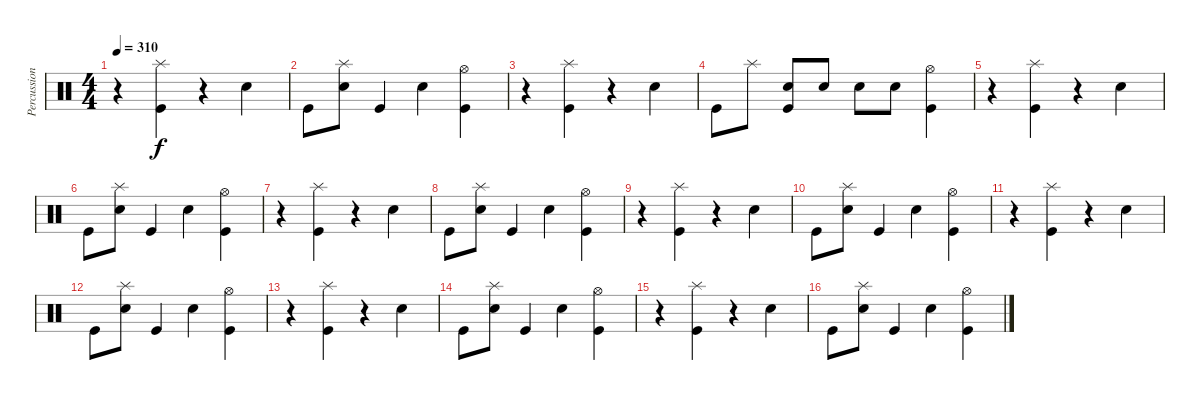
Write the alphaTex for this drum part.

\track ("Percussion" "Percussion") {instrument percussion}
\staff {score}
\articulation defaults
\ts (4 4)
\tempo 310
\clef neutral
\ks c
r.4{dy f} ("Splash (hit)" "Kick (hit)").4 r.4 "Electric Snare (hit)".4 |
"Kick (hit)".8 ("Splash (hit)" "Electric Snare (hit)").8 "Kick (hit)".4 "Electric Snare (hit)".4 ("Hi-Hat (open)" "Kick (hit)").4 |
r.4 ("Splash (hit)" "Kick (hit)").4 r.4 "Electric Snare (hit)".4 |
"Kick (hit)".8 "Splash (hit)".8 ("Electric Snare (hit)" "Kick (hit)").8 "Electric Snare (hit)".8 "Electric Snare (hit)".8 "Electric Snare (hit)".8 ("Hi-Hat (open)" "Kick (hit)").4 |
r.4 ("Splash (hit)" "Kick (hit)").4 r.4 "Electric Snare (hit)".4 |
"Kick (hit)".8 ("Splash (hit)" "Electric Snare (hit)").8 "Kick (hit)".4 "Electric Snare (hit)".4 ("Hi-Hat (open)" "Kick (hit)").4 |
r.4 ("Splash (hit)" "Kick (hit)").4 r.4 "Electric Snare (hit)".4 |
"Kick (hit)".8 ("Splash (hit)" "Electric Snare (hit)").8 "Kick (hit)".4 "Electric Snare (hit)".4 ("Hi-Hat (open)" "Kick (hit)").4 |
r.4 ("Splash (hit)" "Kick (hit)").4 r.4 "Electric Snare (hit)".4 |
"Kick (hit)".8 ("Splash (hit)" "Electric Snare (hit)").8 "Kick (hit)".4 "Electric Snare (hit)".4 ("Hi-Hat (open)" "Kick (hit)").4 |
r.4 ("Splash (hit)" "Kick (hit)").4 r.4 "Electric Snare (hit)".4 |
"Kick (hit)".8 ("Splash (hit)" "Electric Snare (hit)").8 "Kick (hit)".4 "Electric Snare (hit)".4 ("Hi-Hat (open)" "Kick (hit)").4 |
r.4 ("Splash (hit)" "Kick (hit)").4 r.4 "Electric Snare (hit)".4 |
"Kick (hit)".8 ("Splash (hit)" "Electric Snare (hit)").8 "Kick (hit)".4 "Electric Snare (hit)".4 ("Hi-Hat (open)" "Kick (hit)").4 |
r.4 ("Splash (hit)" "Kick (hit)").4 r.4 "Electric Snare (hit)".4 |
"Kick (hit)".8 ("Splash (hit)" "Electric Snare (hit)").8 "Kick (hit)".4 "Electric Snare (hit)".4 ("Hi-Hat (open)" "Kick (hit)").4
